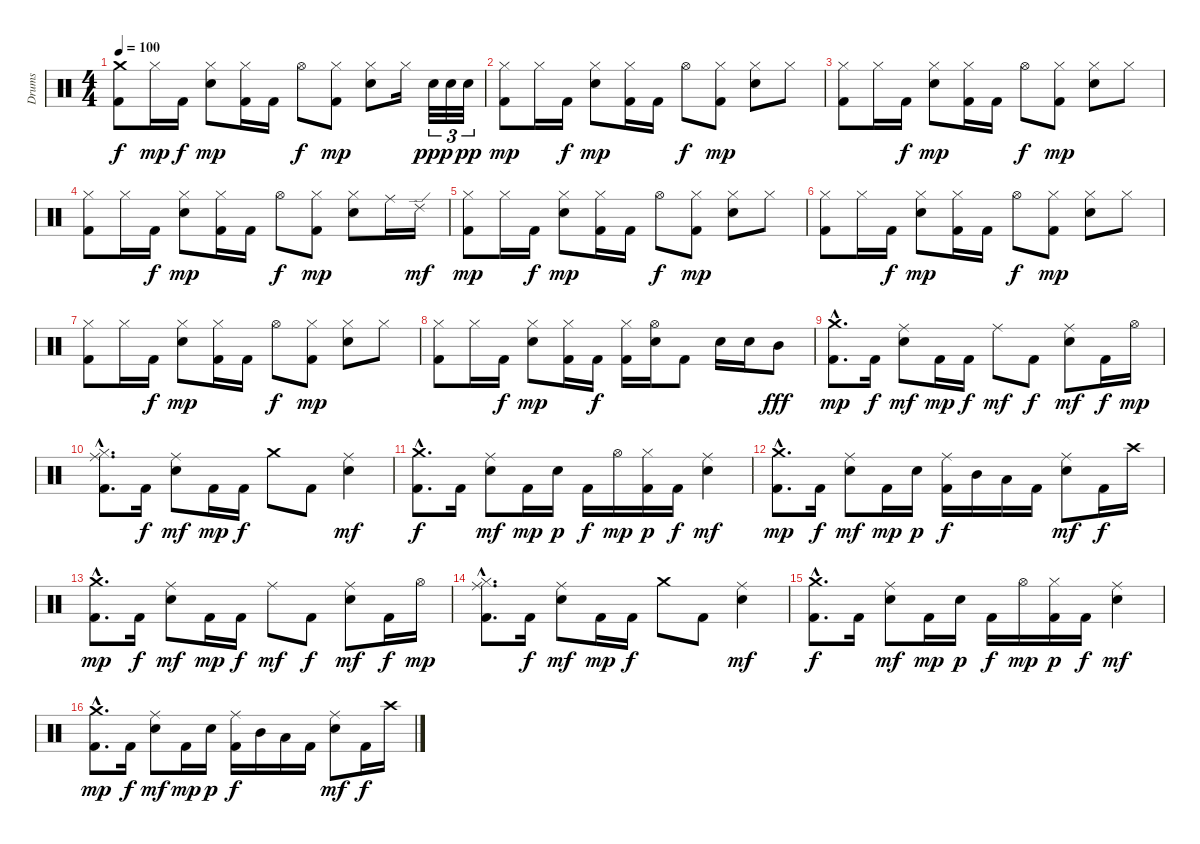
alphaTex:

\track ("Drums" "Drums") {instrument percussion}
\staff {score}
\articulation defaults
\ts (4 4)
\tempo 100
\clef neutral
\ks c
("Crash medium (hit)" "Kick (hit) 2").8{dy f} "Hi-Hat (closed)".16{dy mp} "Kick (hit) 2".16{dy f} ("Hi-Hat (closed)" "Electric Snare (hit)").8{dy mp} ("Hi-Hat (closed)" "Kick (hit) 2").16 "Kick (hit) 2".16 "Hi-Hat (open)".8{dy f} ("Hi-Hat (closed)" "Kick (hit) 2").8{dy mp} ("Hi-Hat (closed)" "Electric Snare (hit)").8 "Hi-Hat (closed)".16 "Electric Snare (hit)".32{tu (3 2) dy ppp} "Electric Snare (hit)".32{tu (3 2)} "Electric Snare (hit)".32{tu (3 2) dy pp} |
("Hi-Hat (closed)" "Kick (hit) 2").8{dy mp} "Hi-Hat (closed)".16 "Kick (hit) 2".16{dy f} ("Hi-Hat (closed)" "Electric Snare (hit)").8{dy mp} ("Hi-Hat (closed)" "Kick (hit) 2").16 "Kick (hit) 2".16 "Hi-Hat (open)".8{dy f} ("Hi-Hat (closed)" "Kick (hit) 2").8{dy mp} ("Hi-Hat (closed)" "Electric Snare (hit)").8 "Hi-Hat (closed)".8 |
("Hi-Hat (closed)" "Kick (hit) 2").8 "Hi-Hat (closed)".16 "Kick (hit) 2".16{dy f} ("Hi-Hat (closed)" "Electric Snare (hit)").8{dy mp} ("Hi-Hat (closed)" "Kick (hit) 2").16 "Kick (hit) 2".16 "Hi-Hat (open)".8{dy f} ("Hi-Hat (closed)" "Kick (hit) 2").8{dy mp} ("Hi-Hat (closed)" "Electric Snare (hit)").8 "Hi-Hat (closed)".8 |
("Hi-Hat (closed)" "Kick (hit) 2").8 "Hi-Hat (closed)".16 "Kick (hit) 2".16{dy f} ("Hi-Hat (closed)" "Electric Snare (hit)").8{dy mp} ("Hi-Hat (closed)" "Kick (hit) 2").16 "Kick (hit) 2".16 "Hi-Hat (open)".8{dy f} ("Hi-Hat (closed)" "Kick (hit) 2").8{dy mp} ("Hi-Hat (closed)" "Electric Snare (hit)").8 "Ride (middle)".16 "Ride (edge) 2".16{dy mf} |
("Hi-Hat (closed)" "Kick (hit) 2").8{dy mp} "Hi-Hat (closed)".16 "Kick (hit) 2".16{dy f} ("Hi-Hat (closed)" "Electric Snare (hit)").8{dy mp} ("Hi-Hat (closed)" "Kick (hit) 2").16 "Kick (hit) 2".16 "Hi-Hat (open)".8{dy f} ("Hi-Hat (closed)" "Kick (hit) 2").8{dy mp} ("Hi-Hat (closed)" "Electric Snare (hit)").8 "Hi-Hat (closed)".8 |
("Hi-Hat (closed)" "Kick (hit) 2").8 "Hi-Hat (closed)".16 "Kick (hit) 2".16{dy f} ("Hi-Hat (closed)" "Electric Snare (hit)").8{dy mp} ("Hi-Hat (closed)" "Kick (hit) 2").16 "Kick (hit) 2".16 "Hi-Hat (open)".8{dy f} ("Hi-Hat (closed)" "Kick (hit) 2").8{dy mp} ("Hi-Hat (closed)" "Electric Snare (hit)").8 "Hi-Hat (closed)".8 |
("Hi-Hat (closed)" "Kick (hit) 2").8 "Hi-Hat (closed)".16 "Kick (hit) 2".16{dy f} ("Hi-Hat (closed)" "Electric Snare (hit)").8{dy mp} ("Hi-Hat (closed)" "Kick (hit) 2").16 "Kick (hit) 2".16 "Hi-Hat (open)".8{dy f} ("Hi-Hat (closed)" "Kick (hit) 2").8{dy mp} ("Hi-Hat (closed)" "Electric Snare (hit)").8 "Hi-Hat (closed)".8 |
("Hi-Hat (closed)" "Kick (hit) 2").8 "Hi-Hat (closed)".16 "Kick (hit) 2".16{dy f} ("Hi-Hat (closed)" "Electric Snare (hit)").8{dy mp} ("Hi-Hat (closed)" "Kick (hit) 2").16 "Kick (hit) 2".16{dy f} ("Hi-Hat (closed)" "Kick (hit) 2").16 ("Hi-Hat (open)" "Electric Snare (hit)").16 "Kick (hit) 2".8 "Electric Snare (hit)".16 "Electric Snare (hit)".16 "Mid Tom (hit)".8{dy fff} |
("Crash medium (hit)"{hac} "Kick (hit) 2"{hac}).8{d dy mp} "Kick (hit) 2".16{dy f} ("Ride (middle)" "Electric Snare (hit)").8{dy mf} "Kick (hit) 2".16{dy mp} "Kick (hit) 2".16{dy f} "Ride (middle)".8{dy mf} "Kick (hit) 2".8{dy f} ("Ride (middle)" "Electric Snare (hit)").8{dy mf} "Kick (hit) 2".16{dy f} "Hi-Hat (open)".16{dy mp} |
("Hi-Hat (closed)"{hac} "Ride (middle)"{hac} "Kick (hit) 2"{hac}).8{d} "Kick (hit) 2".16{dy f} ("Ride (middle)" "Electric Snare (hit)").8{dy mf} "Kick (hit) 2".16{dy mp} "Kick (hit) 2".16{dy f} "Crash medium (hit)".8 "Kick (hit) 2".8 ("Ride (middle)" "Electric Snare (hit)").4{dy mf} |
("Crash medium (hit)"{hac} "Kick (hit) 2"{hac}).8{d dy f} "Kick (hit) 2".16 ("Ride (middle)" "Electric Snare (hit)").8{dy mf} "Kick (hit) 2".16{dy mp} "Electric Snare (hit)".16{dy p} "Kick (hit) 2".16{dy f} "Hi-Hat (open)".16{dy mp} ("Hi-Hat (closed)" "Kick (hit) 2").16{dy p} "Kick (hit) 2".16{dy f} ("Ride (middle)" "Electric Snare (hit)").4{dy mf} |
("Crash medium (hit)"{hac} "Kick (hit) 2"{hac}).8{d dy mp} "Kick (hit) 2".16{dy f} ("Ride (middle)" "Electric Snare (hit)").8{dy mf} "Kick (hit) 2".16{dy mp} "Electric Snare (hit)".16{dy p} ("Ride (middle)" "Kick (hit) 2").16{dy f} "Mid Tom (hit)".16 "Low Tom (hit)".16 "Kick (hit) 2".16 ("Ride (middle)" "Electric Snare (hit)").8{dy mf} "Kick (hit) 2".16{dy f} "Crash high (hit)".16 |
("Crash medium (hit)"{hac} "Kick (hit) 2"{hac}).8{d dy mp} "Kick (hit) 2".16{dy f} ("Ride (middle)" "Electric Snare (hit)").8{dy mf} "Kick (hit) 2".16{dy mp} "Kick (hit) 2".16{dy f} "Ride (middle)".8{dy mf} "Kick (hit) 2".8{dy f} ("Ride (middle)" "Electric Snare (hit)").8{dy mf} "Kick (hit) 2".16{dy f} "Hi-Hat (open)".16{dy mp} |
("Hi-Hat (closed)"{hac} "Ride (middle)"{hac} "Kick (hit) 2"{hac}).8{d} "Kick (hit) 2".16{dy f} ("Ride (middle)" "Electric Snare (hit)").8{dy mf} "Kick (hit) 2".16{dy mp} "Kick (hit) 2".16{dy f} "Crash medium (hit)".8 "Kick (hit) 2".8 ("Ride (middle)" "Electric Snare (hit)").4{dy mf} |
("Crash medium (hit)"{hac} "Kick (hit) 2"{hac}).8{d dy f} "Kick (hit) 2".16 ("Ride (middle)" "Electric Snare (hit)").8{dy mf} "Kick (hit) 2".16{dy mp} "Electric Snare (hit)".16{dy p} "Kick (hit) 2".16{dy f} "Hi-Hat (open)".16{dy mp} ("Hi-Hat (closed)" "Kick (hit) 2").16{dy p} "Kick (hit) 2".16{dy f} ("Ride (middle)" "Electric Snare (hit)").4{dy mf} |
("Crash medium (hit)"{hac} "Kick (hit) 2"{hac}).8{d dy mp} "Kick (hit) 2".16{dy f} ("Ride (middle)" "Electric Snare (hit)").8{dy mf} "Kick (hit) 2".16{dy mp} "Electric Snare (hit)".16{dy p} ("Ride (middle)" "Kick (hit) 2").16{dy f} "Mid Tom (hit)".16 "Low Tom (hit)".16 "Kick (hit) 2".16 ("Ride (middle)" "Electric Snare (hit)").8{dy mf} "Kick (hit) 2".16{dy f} "Crash high (hit)".16
